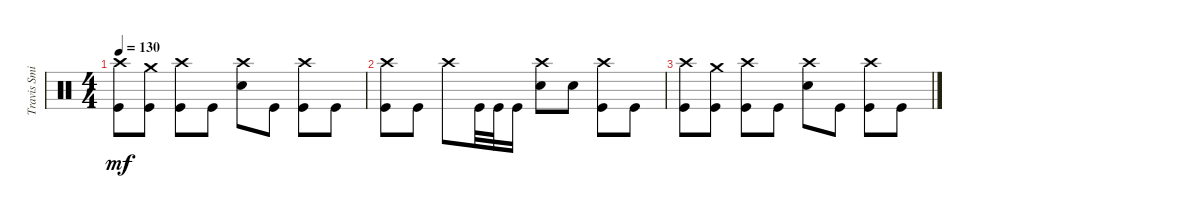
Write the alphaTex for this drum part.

\track ("Travis Smith" "Travis Smi") {instrument percussion}
\staff {score}
\articulation defaults
\ts (4 4)
\tempo 130
\clef neutral
\ks c
("Crash high (hit)" "Kick (hit)").8{dy mf} ("Crash medium (hit)" "Kick (hit)").8 ("Crash high (hit)" "Kick (hit)").8 "Kick (hit)".8 ("Crash high (hit)" "Snare (hit) 2").8 "Kick (hit)".8 ("Crash high (hit)" "Kick (hit)").8 "Kick (hit)".8 |
("Crash high (hit)" "Kick (hit)").8 "Kick (hit)".8 "Crash high (hit)".8 "Kick (hit)".32 "Kick (hit)".32 "Kick (hit)".16 ("Crash high (hit)" "Snare (hit) 2").8 "Snare (hit) 2".8 ("Crash high (hit)" "Kick (hit)").8 "Kick (hit)".8 |
("Crash high (hit)" "Kick (hit)").8 ("Crash medium (hit)" "Kick (hit)").8 ("Crash high (hit)" "Kick (hit)").8 "Kick (hit)".8 ("Crash high (hit)" "Snare (hit) 2").8 "Kick (hit)".8 ("Crash high (hit)" "Kick (hit)").8 "Kick (hit)".8
